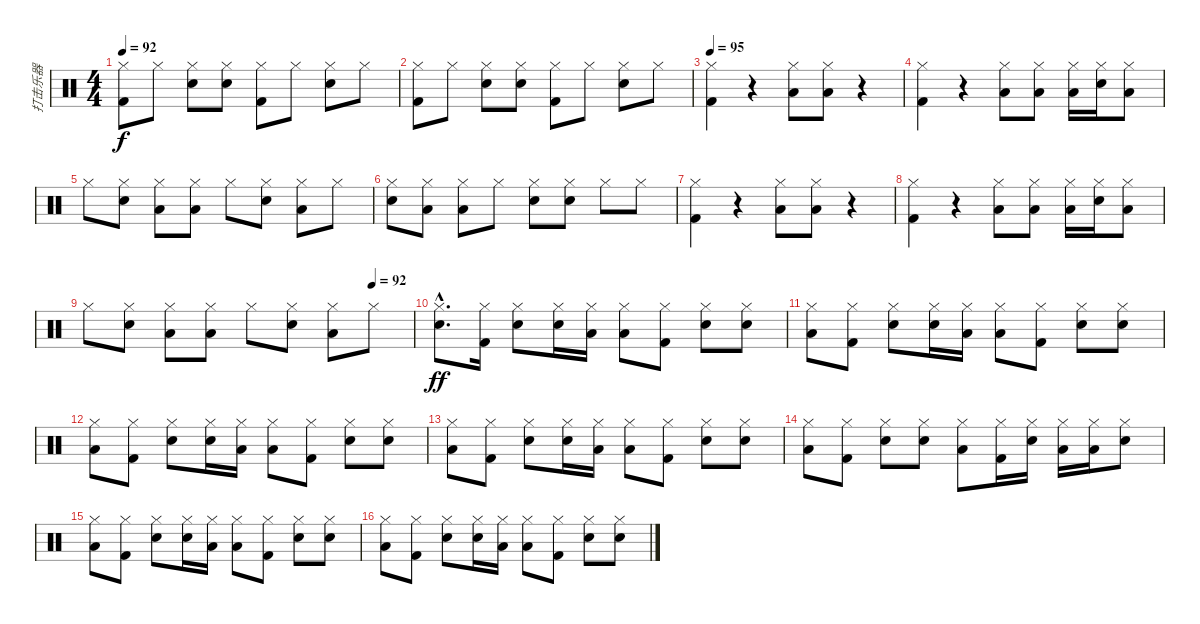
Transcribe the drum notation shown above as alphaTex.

\track ("打击乐器" "打击乐器") {instrument percussion}
\staff {score}
\articulation defaults
\ts (4 4)
\tempo 92
\clef neutral
\ks c
("Hi-Hat (closed)" "Kick (hit) 2").8{dy f} "Hi-Hat (closed)".8 ("Hi-Hat (closed)" "Electric Snare (hit)").8 ("Hi-Hat (closed)" "Electric Snare (hit)").8 ("Hi-Hat (closed)" "Kick (hit) 2").8 "Hi-Hat (closed)".8 ("Hi-Hat (closed)" "Electric Snare (hit)").8 "Hi-Hat (closed)".8 |
("Hi-Hat (closed)" "Kick (hit) 2").8 "Hi-Hat (closed)".8 ("Hi-Hat (closed)" "Electric Snare (hit)").8 ("Hi-Hat (closed)" "Electric Snare (hit)").8 ("Hi-Hat (closed)" "Kick (hit) 2").8 "Hi-Hat (closed)".8 ("Hi-Hat (closed)" "Electric Snare (hit)").8 "Hi-Hat (closed)".8 |
\tempo 95
("Hi-Hat (closed)" "Kick (hit) 2").4 r.4 ("Hi-Hat (closed)" "Low Tom (hit)").8 ("Hi-Hat (closed)" "Low Tom (hit)").8 r.4 |
("Hi-Hat (closed)" "Kick (hit) 2").4 r.4 ("Hi-Hat (closed)" "Low Tom (hit)").8 ("Hi-Hat (closed)" "Low Tom (hit)").8 ("Hi-Hat (closed)" "Low Tom (hit)").16 ("Hi-Hat (closed)" "Electric Snare (hit)").16 ("Hi-Hat (closed)" "Low Tom (hit)").8 |
"Hi-Hat (closed)".8 ("Hi-Hat (closed)" "Electric Snare (hit)").8 ("Hi-Hat (closed)" "Low Tom (hit)").8 ("Hi-Hat (closed)" "Low Tom (hit)").8 "Hi-Hat (closed)".8 ("Hi-Hat (closed)" "Electric Snare (hit)").8 ("Hi-Hat (closed)" "Low Tom (hit)").8 "Hi-Hat (closed)".8 |
("Hi-Hat (closed)" "Electric Snare (hit)").8 ("Hi-Hat (closed)" "Low Tom (hit)").8 ("Hi-Hat (closed)" "Low Tom (hit)").8 "Hi-Hat (closed)".8 ("Hi-Hat (closed)" "Electric Snare (hit)").8 ("Hi-Hat (closed)" "Electric Snare (hit)").8 "Hi-Hat (closed)".8 "Hi-Hat (closed)".8 |
("Hi-Hat (closed)" "Kick (hit) 2").4 r.4 ("Hi-Hat (closed)" "Low Tom (hit)").8 ("Hi-Hat (closed)" "Low Tom (hit)").8 r.4 |
("Hi-Hat (closed)" "Kick (hit) 2").4 r.4 ("Hi-Hat (closed)" "Low Tom (hit)").8 ("Hi-Hat (closed)" "Low Tom (hit)").8 ("Hi-Hat (closed)" "Low Tom (hit)").16 ("Hi-Hat (closed)" "Electric Snare (hit)").16 ("Hi-Hat (closed)" "Low Tom (hit)").8 |
\tempo (92 0.875)
"Hi-Hat (closed)".8 ("Hi-Hat (closed)" "Electric Snare (hit)").8 ("Hi-Hat (closed)" "Low Tom (hit)").8 ("Hi-Hat (closed)" "Low Tom (hit)").8 "Hi-Hat (closed)".8 ("Hi-Hat (closed)" "Electric Snare (hit)").8 ("Hi-Hat (closed)" "Low Tom (hit)").8 "Hi-Hat (closed)".8 |
("Hi-Hat (closed)"{hac} "Electric Snare (hit)"{hac}).8{d dy ff} ("Hi-Hat (closed)" "Kick (hit) 2").16 ("Hi-Hat (closed)" "Electric Snare (hit)").8 ("Hi-Hat (closed)" "Electric Snare (hit)").16 ("Hi-Hat (closed)" "Low Tom (hit)").16 ("Hi-Hat (closed)" "Low Tom (hit)").8 ("Hi-Hat (closed)" "Kick (hit) 2").8 ("Hi-Hat (closed)" "Electric Snare (hit)").8 ("Hi-Hat (closed)" "Electric Snare (hit)").8 |
("Hi-Hat (closed)" "Low Tom (hit)").8 ("Hi-Hat (closed)" "Kick (hit) 2").8 ("Hi-Hat (closed)" "Electric Snare (hit)").8 ("Hi-Hat (closed)" "Electric Snare (hit)").16 ("Hi-Hat (closed)" "Low Tom (hit)").16 ("Hi-Hat (closed)" "Low Tom (hit)").8 ("Hi-Hat (closed)" "Kick (hit) 2").8 ("Hi-Hat (closed)" "Electric Snare (hit)").8 ("Hi-Hat (closed)" "Electric Snare (hit)").8 |
("Hi-Hat (closed)" "Low Tom (hit)").8 ("Hi-Hat (closed)" "Kick (hit) 2").8 ("Hi-Hat (closed)" "Electric Snare (hit)").8 ("Hi-Hat (closed)" "Electric Snare (hit)").16 ("Hi-Hat (closed)" "Low Tom (hit)").16 ("Hi-Hat (closed)" "Low Tom (hit)").8 ("Hi-Hat (closed)" "Kick (hit) 2").8 ("Hi-Hat (closed)" "Electric Snare (hit)").8 ("Hi-Hat (closed)" "Electric Snare (hit)").8 |
("Hi-Hat (closed)" "Low Tom (hit)").8 ("Hi-Hat (closed)" "Kick (hit) 2").8 ("Hi-Hat (closed)" "Electric Snare (hit)").8 ("Hi-Hat (closed)" "Electric Snare (hit)").16 ("Hi-Hat (closed)" "Low Tom (hit)").16 ("Hi-Hat (closed)" "Low Tom (hit)").8 ("Hi-Hat (closed)" "Kick (hit) 2").8 ("Hi-Hat (closed)" "Electric Snare (hit)").8 ("Hi-Hat (closed)" "Electric Snare (hit)").8 |
("Hi-Hat (closed)" "Low Tom (hit)").8 ("Hi-Hat (closed)" "Kick (hit) 2").8 ("Hi-Hat (closed)" "Electric Snare (hit)").8 ("Hi-Hat (closed)" "Electric Snare (hit)").8 ("Hi-Hat (closed)" "Low Tom (hit)").8 ("Hi-Hat (closed)" "Kick (hit) 2").16 ("Hi-Hat (closed)" "Electric Snare (hit)").16 ("Hi-Hat (closed)" "Low Tom (hit)").16 ("Hi-Hat (closed)" "Low Tom (hit)").16 ("Hi-Hat (closed)" "Electric Snare (hit)").8 |
("Hi-Hat (closed)" "Low Tom (hit)").8 ("Hi-Hat (closed)" "Kick (hit) 2").8 ("Hi-Hat (closed)" "Electric Snare (hit)").8 ("Hi-Hat (closed)" "Electric Snare (hit)").16 ("Hi-Hat (closed)" "Low Tom (hit)").16 ("Hi-Hat (closed)" "Low Tom (hit)").8 ("Hi-Hat (closed)" "Kick (hit) 2").8 ("Hi-Hat (closed)" "Electric Snare (hit)").8 ("Hi-Hat (closed)" "Electric Snare (hit)").8 |
("Hi-Hat (closed)" "Low Tom (hit)").8 ("Hi-Hat (closed)" "Kick (hit) 2").8 ("Hi-Hat (closed)" "Electric Snare (hit)").8 ("Hi-Hat (closed)" "Electric Snare (hit)").16 ("Hi-Hat (closed)" "Low Tom (hit)").16 ("Hi-Hat (closed)" "Low Tom (hit)").8 ("Hi-Hat (closed)" "Kick (hit) 2").8 ("Hi-Hat (closed)" "Electric Snare (hit)").8 ("Hi-Hat (closed)" "Electric Snare (hit)").8
